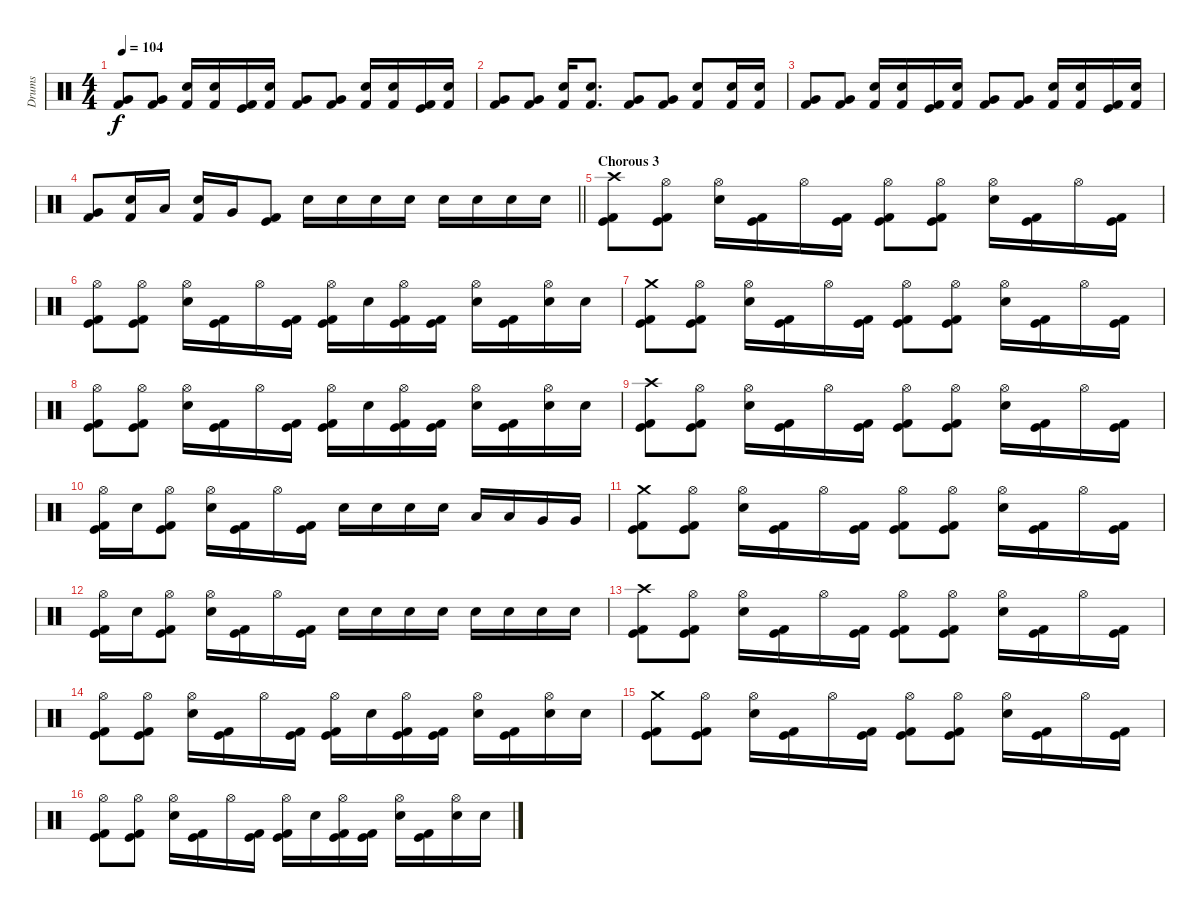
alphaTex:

\track ("Drums" "Drums") {instrument percussion}
\staff {score}
\articulation defaults
\ts (4 4)
\tempo 104
\clef neutral
\ks c
("Kick (hit) 2" "Very Low Tom (hit)").8{dy f} ("Kick (hit) 2" "Very Low Tom (hit)").8 ("Electric Snare (hit)" "Kick (hit) 2").16 ("Electric Snare (hit)" "Kick (hit) 2").16 ("Kick (hit)" "Kick (hit) 2").16 ("Electric Snare (hit)" "Kick (hit) 2").16 ("Kick (hit) 2" "Very Low Tom (hit)").8 ("Kick (hit) 2" "Very Low Tom (hit)").8 ("Electric Snare (hit)" "Kick (hit) 2").16 ("Electric Snare (hit)" "Kick (hit) 2").16 ("Kick (hit)" "Kick (hit) 2").16 ("Electric Snare (hit)" "Kick (hit) 2").16 |
("Kick (hit) 2" "Very Low Tom (hit)").8 ("Kick (hit) 2" "Very Low Tom (hit)").8 ("Electric Snare (hit)" "Kick (hit) 2").16 ("Electric Snare (hit)" "Kick (hit) 2").8{d} ("Kick (hit) 2" "Very Low Tom (hit)").8 ("Kick (hit) 2" "Very Low Tom (hit)").8 ("Electric Snare (hit)" "Kick (hit) 2").8 ("Electric Snare (hit)" "Kick (hit) 2").16 ("Electric Snare (hit)" "Kick (hit) 2").16 |
("Kick (hit) 2" "Very Low Tom (hit)").8 ("Kick (hit) 2" "Very Low Tom (hit)").8 ("Electric Snare (hit)" "Kick (hit) 2").16 ("Electric Snare (hit)" "Kick (hit) 2").16 ("Kick (hit)" "Kick (hit) 2").16 ("Electric Snare (hit)" "Kick (hit) 2").16 ("Kick (hit) 2" "Very Low Tom (hit)").8 ("Kick (hit) 2" "Very Low Tom (hit)").8 ("Electric Snare (hit)" "Kick (hit) 2").16 ("Electric Snare (hit)" "Kick (hit) 2").16 ("Kick (hit)" "Kick (hit) 2").16 ("Electric Snare (hit)" "Kick (hit) 2").16 |
\barLineRight lightlight
("Kick (hit) 2" "Very Low Tom (hit)").8 ("Electric Snare (hit)" "Kick (hit) 2").16 "Low Tom (hit)".16 ("Electric Snare (hit)" "Kick (hit) 2").16 "Very Low Tom (hit)".16 ("Kick (hit)" "Kick (hit) 2").8 "Electric Snare (hit)".16 "Electric Snare (hit)".16 "Electric Snare (hit)".16 "Electric Snare (hit)".16 "Electric Snare (hit)".16 "Electric Snare (hit)".16 "Electric Snare (hit)".16 "Electric Snare (hit)".16 |
\section ("" "Chorous 3")
("Crash high (hit)" "Kick (hit)" "Kick (hit) 2").8 ("Hi-Hat (open)" "Kick (hit)" "Kick (hit) 2").8 ("Hi-Hat (open)" "Electric Snare (hit)").16 ("Kick (hit)" "Kick (hit) 2").16 "Hi-Hat (open)".16 ("Kick (hit)" "Kick (hit) 2").16 ("Hi-Hat (open)" "Kick (hit)" "Kick (hit) 2").8 ("Hi-Hat (open)" "Kick (hit)" "Kick (hit) 2").8 ("Hi-Hat (open)" "Electric Snare (hit)").16 ("Kick (hit)" "Kick (hit) 2").16 "Hi-Hat (open)".16 ("Kick (hit)" "Kick (hit) 2").16 |
("Hi-Hat (open)" "Kick (hit)" "Kick (hit) 2").8 ("Hi-Hat (open)" "Kick (hit)" "Kick (hit) 2").8 ("Hi-Hat (open)" "Electric Snare (hit)").16 ("Kick (hit)" "Kick (hit) 2").16 "Hi-Hat (open)".16 ("Kick (hit)" "Kick (hit) 2").16 ("Hi-Hat (open)" "Kick (hit)" "Kick (hit) 2").16 "Electric Snare (hit)".16 ("Hi-Hat (open)" "Kick (hit)" "Kick (hit) 2").16 ("Kick (hit)" "Kick (hit) 2").16 ("Hi-Hat (open)" "Electric Snare (hit)").16 ("Kick (hit)" "Kick (hit) 2").16 ("Hi-Hat (open)" "Electric Snare (hit)").16 "Electric Snare (hit)".16 |
("Crash medium (hit)" "Kick (hit)" "Kick (hit) 2").8 ("Hi-Hat (open)" "Kick (hit)" "Kick (hit) 2").8 ("Hi-Hat (open)" "Electric Snare (hit)").16 ("Kick (hit)" "Kick (hit) 2").16 "Hi-Hat (open)".16 ("Kick (hit)" "Kick (hit) 2").16 ("Hi-Hat (open)" "Kick (hit)" "Kick (hit) 2").8 ("Hi-Hat (open)" "Kick (hit)" "Kick (hit) 2").8 ("Hi-Hat (open)" "Electric Snare (hit)").16 ("Kick (hit)" "Kick (hit) 2").16 "Hi-Hat (open)".16 ("Kick (hit)" "Kick (hit) 2").16 |
("Hi-Hat (open)" "Kick (hit)" "Kick (hit) 2").8 ("Hi-Hat (open)" "Kick (hit)" "Kick (hit) 2").8 ("Hi-Hat (open)" "Electric Snare (hit)").16 ("Kick (hit)" "Kick (hit) 2").16 "Hi-Hat (open)".16 ("Kick (hit)" "Kick (hit) 2").16 ("Hi-Hat (open)" "Kick (hit)" "Kick (hit) 2").16 "Electric Snare (hit)".16 ("Hi-Hat (open)" "Kick (hit)" "Kick (hit) 2").16 ("Kick (hit)" "Kick (hit) 2").16 ("Hi-Hat (open)" "Electric Snare (hit)").16 ("Kick (hit)" "Kick (hit) 2").16 ("Hi-Hat (open)" "Electric Snare (hit)").16 "Electric Snare (hit)".16 |
("Crash high (hit)" "Kick (hit)" "Kick (hit) 2").8 ("Hi-Hat (open)" "Kick (hit)" "Kick (hit) 2").8 ("Hi-Hat (open)" "Electric Snare (hit)").16 ("Kick (hit)" "Kick (hit) 2").16 "Hi-Hat (open)".16 ("Kick (hit)" "Kick (hit) 2").16 ("Hi-Hat (open)" "Kick (hit)" "Kick (hit) 2").8 ("Hi-Hat (open)" "Kick (hit)" "Kick (hit) 2").8 ("Hi-Hat (open)" "Electric Snare (hit)").16 ("Kick (hit)" "Kick (hit) 2").16 "Hi-Hat (open)".16 ("Kick (hit)" "Kick (hit) 2").16 |
("Hi-Hat (open)" "Kick (hit)" "Kick (hit) 2").16 "Electric Snare (hit)".16 ("Hi-Hat (open)" "Kick (hit)" "Kick (hit) 2").8 ("Hi-Hat (open)" "Electric Snare (hit)").16 ("Kick (hit)" "Kick (hit) 2").16 "Hi-Hat (open)".16 ("Kick (hit)" "Kick (hit) 2").16 "Electric Snare (hit)".16 "Electric Snare (hit)".16 "Electric Snare (hit)".16 "Electric Snare (hit)".16 "Low Tom (hit)".16 "Low Tom (hit)".16 "Very Low Tom (hit)".16 "Very Low Tom (hit)".16 |
("Crash medium (hit)" "Kick (hit)" "Kick (hit) 2").8 ("Hi-Hat (open)" "Kick (hit)" "Kick (hit) 2").8 ("Hi-Hat (open)" "Electric Snare (hit)").16 ("Kick (hit)" "Kick (hit) 2").16 "Hi-Hat (open)".16 ("Kick (hit)" "Kick (hit) 2").16 ("Hi-Hat (open)" "Kick (hit)" "Kick (hit) 2").8 ("Hi-Hat (open)" "Kick (hit)" "Kick (hit) 2").8 ("Hi-Hat (open)" "Electric Snare (hit)").16 ("Kick (hit)" "Kick (hit) 2").16 "Hi-Hat (open)".16 ("Kick (hit)" "Kick (hit) 2").16 |
("Hi-Hat (open)" "Kick (hit)" "Kick (hit) 2").16 "Electric Snare (hit)".16 ("Hi-Hat (open)" "Kick (hit)" "Kick (hit) 2").8 ("Hi-Hat (open)" "Electric Snare (hit)").16 ("Kick (hit)" "Kick (hit) 2").16 "Hi-Hat (open)".16 ("Kick (hit)" "Kick (hit) 2").16 "Electric Snare (hit)".16 "Electric Snare (hit)".16 "Electric Snare (hit)".16 "Electric Snare (hit)".16 "Electric Snare (hit)".16 "Electric Snare (hit)".16 "Electric Snare (hit)".16 "Electric Snare (hit)".16 |
("Crash high (hit)" "Kick (hit)" "Kick (hit) 2").8 ("Hi-Hat (open)" "Kick (hit)" "Kick (hit) 2").8 ("Hi-Hat (open)" "Electric Snare (hit)").16 ("Kick (hit)" "Kick (hit) 2").16 "Hi-Hat (open)".16 ("Kick (hit)" "Kick (hit) 2").16 ("Hi-Hat (open)" "Kick (hit)" "Kick (hit) 2").8 ("Hi-Hat (open)" "Kick (hit)" "Kick (hit) 2").8 ("Hi-Hat (open)" "Electric Snare (hit)").16 ("Kick (hit)" "Kick (hit) 2").16 "Hi-Hat (open)".16 ("Kick (hit)" "Kick (hit) 2").16 |
("Hi-Hat (open)" "Kick (hit)" "Kick (hit) 2").8 ("Hi-Hat (open)" "Kick (hit)" "Kick (hit) 2").8 ("Hi-Hat (open)" "Electric Snare (hit)").16 ("Kick (hit)" "Kick (hit) 2").16 "Hi-Hat (open)".16 ("Kick (hit)" "Kick (hit) 2").16 ("Hi-Hat (open)" "Kick (hit)" "Kick (hit) 2").16 "Electric Snare (hit)".16 ("Hi-Hat (open)" "Kick (hit)" "Kick (hit) 2").16 ("Kick (hit)" "Kick (hit) 2").16 ("Hi-Hat (open)" "Electric Snare (hit)").16 ("Kick (hit)" "Kick (hit) 2").16 ("Hi-Hat (open)" "Electric Snare (hit)").16 "Electric Snare (hit)".16 |
("Crash medium (hit)" "Kick (hit)" "Kick (hit) 2").8 ("Hi-Hat (open)" "Kick (hit)" "Kick (hit) 2").8 ("Hi-Hat (open)" "Electric Snare (hit)").16 ("Kick (hit)" "Kick (hit) 2").16 "Hi-Hat (open)".16 ("Kick (hit)" "Kick (hit) 2").16 ("Hi-Hat (open)" "Kick (hit)" "Kick (hit) 2").8 ("Hi-Hat (open)" "Kick (hit)" "Kick (hit) 2").8 ("Hi-Hat (open)" "Electric Snare (hit)").16 ("Kick (hit)" "Kick (hit) 2").16 "Hi-Hat (open)".16 ("Kick (hit)" "Kick (hit) 2").16 |
("Hi-Hat (open)" "Kick (hit)" "Kick (hit) 2").8 ("Hi-Hat (open)" "Kick (hit)" "Kick (hit) 2").8 ("Hi-Hat (open)" "Electric Snare (hit)").16 ("Kick (hit)" "Kick (hit) 2").16 "Hi-Hat (open)".16 ("Kick (hit)" "Kick (hit) 2").16 ("Hi-Hat (open)" "Kick (hit)" "Kick (hit) 2").16 "Electric Snare (hit)".16 ("Hi-Hat (open)" "Kick (hit)" "Kick (hit) 2").16 ("Kick (hit)" "Kick (hit) 2").16 ("Hi-Hat (open)" "Electric Snare (hit)").16 ("Kick (hit)" "Kick (hit) 2").16 ("Hi-Hat (open)" "Electric Snare (hit)").16 "Electric Snare (hit)".16
